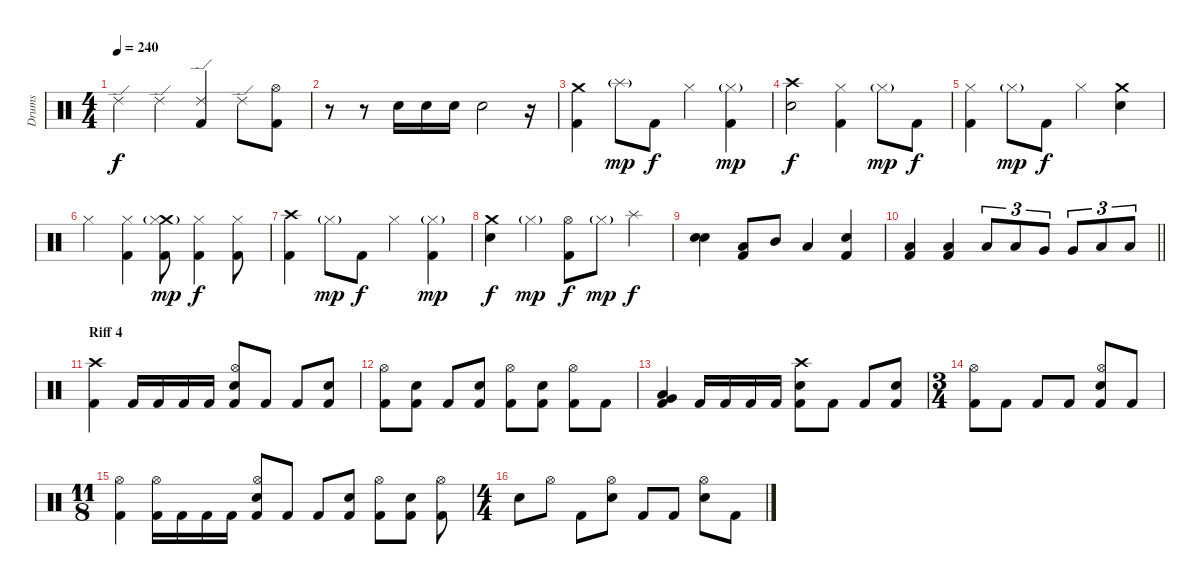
\track ("Drums" "Drums") {instrument percussion}
\staff {score}
\articulation defaults
\ts (4 4)
\tempo 240
\clef neutral
\ks c "Ride (edge) 2".4{dy f} "Ride (edge) 2".4
("Ride (edge) 2" "Kick (hit) 2").4 "Ride (edge) 2".8 ("Hi-Hat (open)" "Kick (hit) 2").8 |
r.8 r.8 "Electric Snare (hit)".16 "Electric Snare (hit)".16 "Electric Snare (hit)".16 "Electric Snare (hit)".2 r.16 |
("Crash medium (hit)" "Kick (hit) 2").4 "Splash (hit)"{g}.8{dy mp} "Kick (hit) 2".8{dy f} "Hi-Hat (closed)".4 ("Hi-Hat (closed)"{g} "Kick (hit) 2").4{dy mp} |
("Crash high (hit)" "Electric Snare (hit)").2{dy f} ("Hi-Hat (closed)" "Kick (hit) 2").4 "Hi-Hat (closed)"{g}.8{dy mp} "Kick (hit) 2".8{dy f} |
("Hi-Hat (closed)" "Kick (hit) 2").4 "Hi-Hat (closed)"{g}.8{dy mp} "Kick (hit) 2".8{dy f} "Hi-Hat (closed)".4 ("Crash medium (hit)" "Electric Snare (hit)").4 |
"Hi-Hat (closed)".4 ("Hi-Hat (closed)" "Kick (hit) 2").4 ("Crash medium (hit)" "Hi-Hat (closed)"{g} "Kick (hit) 2").8{dy mp} ("Hi-Hat (closed)" "Kick (hit) 2").4{dy f} ("Hi-Hat (closed)" "Kick (hit) 2").8 |
("Crash high (hit)" "Kick (hit) 2").4 "Hi-Hat (closed)"{g}.8{dy mp} "Kick (hit) 2".8{dy f} "Hi-Hat (closed)".4 ("Hi-Hat (closed)"{g} "Kick (hit) 2").4{dy mp} |
("Crash medium (hit)" "Electric Snare (hit)").4{dy f} "Hi-Hat (closed)"{g}.4{dy mp} ("Hi-Hat (open)" "Kick (hit) 2").8{dy f} "Hi-Hat (closed)"{g}.8{dy mp} "Splash (hit)".4{dy f} |
("Electric Snare (hit)" "Electric Snare (hit)").4{bu 240} ("Low Floor Tom (hit)" "Kick (hit) 2").8 "Mid Tom (hit)".8 "Low Tom (hit)".4 ("Electric Snare (hit)" "Kick (hit) 2").4 |
\barLineRight lightlight
("Low Tom (hit)" "Kick (hit) 2").4 ("Low Tom (hit)" "Kick (hit) 2").4 "Low Tom (hit)".8{tu (3 2)} "Low Tom (hit)".8{tu (3 2)} "Very Low Tom (hit)".8{tu (3 2)} "Very Low Tom (hit)".8{tu (3 2)} "Low Floor Tom (hit)".8{tu (3 2)} "Low Floor Tom (hit)".8{tu (3 2)} |
\section ("" "Riff 4")
("Crash high (hit)" "Kick (hit) 2").4 "Kick (hit) 2".16 "Kick (hit) 2".16 "Kick (hit) 2".16 "Kick (hit) 2".16 ("Hi-Hat (open)" "Electric Snare (hit)" "Kick (hit) 2").8 "Kick (hit) 2".8 "Kick (hit) 2".8 ("Electric Snare (hit)" "Kick (hit) 2").8 |
("Hi-Hat (open)" "Kick (hit) 2").8 ("Electric Snare (hit)" "Kick (hit) 2").8 "Kick (hit) 2".8 ("Electric Snare (hit)" "Kick (hit) 2").8 ("Hi-Hat (open)" "Kick (hit) 2").8 ("Electric Snare (hit)" "Kick (hit) 2").8 ("Hi-Hat (open)" "Kick (hit) 2").8 "Kick (hit) 2".8 |
("Very Low Tom (hit)" "Low Tom (hit)" "Kick (hit) 2").4 "Kick (hit) 2".16 "Kick (hit) 2".16 "Kick (hit) 2".16 "Kick (hit) 2".16 ("Crash high (hit)" "Electric Snare (hit)" "Kick (hit) 2").8 "Kick (hit) 2".8 "Kick (hit) 2".8 ("Electric Snare (hit)" "Kick (hit) 2").8 |
\ts (3 4)
("Hi-Hat (open)" "Kick (hit) 2").8 "Kick (hit) 2".8 "Kick (hit) 2".8 "Kick (hit) 2".8 ("Hi-Hat (open)" "Electric Snare (hit)" "Kick (hit) 2").8 "Kick (hit) 2".8 |
\ts (11 8)
("Hi-Hat (open)" "Kick (hit) 2").4 ("Hi-Hat (open)" "Kick (hit) 2").16 "Kick (hit) 2".16 "Kick (hit) 2".16 "Kick (hit) 2".16 ("Hi-Hat (open)" "Electric Snare (hit)" "Kick (hit) 2").8 "Kick (hit) 2".8 "Kick (hit) 2".8 ("Electric Snare (hit)" "Kick (hit) 2").8 ("Hi-Hat (open)" "Kick (hit) 2").8 ("Electric Snare (hit)" "Kick (hit) 2").8 ("Hi-Hat (open)" "Kick (hit) 2").8 |
\ts (4 4)
"Electric Snare (hit)".8 "Hi-Hat (open)".8 "Kick (hit) 2".8 ("Hi-Hat (open)" "Electric Snare (hit)").8 "Kick (hit) 2".8 "Kick (hit) 2".8 ("Hi-Hat (open)" "Electric Snare (hit)").8 "Kick (hit) 2".8
